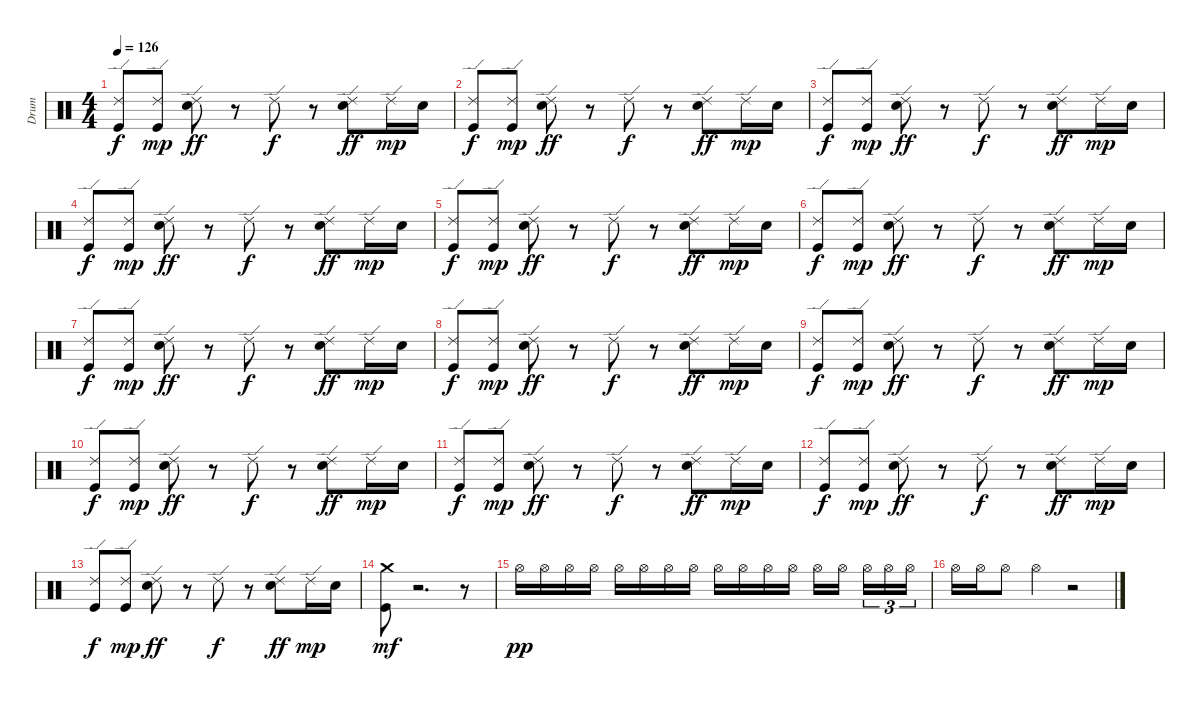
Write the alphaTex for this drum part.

\track ("Drum" "Drum") {instrument percussion}
\staff {score}
\articulation defaults
\ts (4 4)
\tempo 126
\clef neutral
\ks c
("Kick (hit)" "Ride (edge) 2").8{dy f} ("Kick (hit)" "Ride (edge) 2").8{dy mp} ("Snare (hit) 2" "Ride (edge) 2").8{dy ff} r.8 "Ride (edge) 2".8{dy f} r.8 ("Snare (hit) 2" "Ride (edge) 2").8{dy ff} "Ride (edge) 2".16{dy mp} "Snare (hit) 2".16 |
("Kick (hit)" "Ride (edge) 2").8{dy f} ("Kick (hit)" "Ride (edge) 2").8{dy mp} ("Snare (hit) 2" "Ride (edge) 2").8{dy ff} r.8 "Ride (edge) 2".8{dy f} r.8 ("Snare (hit) 2" "Ride (edge) 2").8{dy ff} "Ride (edge) 2".16{dy mp} "Snare (hit) 2".16 |
("Kick (hit)" "Ride (edge) 2").8{dy f} ("Kick (hit)" "Ride (edge) 2").8{dy mp} ("Snare (hit) 2" "Ride (edge) 2").8{dy ff} r.8 "Ride (edge) 2".8{dy f} r.8 ("Snare (hit) 2" "Ride (edge) 2").8{dy ff} "Ride (edge) 2".16{dy mp} "Snare (hit) 2".16 |
("Kick (hit)" "Ride (edge) 2").8{dy f} ("Kick (hit)" "Ride (edge) 2").8{dy mp} ("Snare (hit) 2" "Ride (edge) 2").8{dy ff} r.8 "Ride (edge) 2".8{dy f} r.8 ("Snare (hit) 2" "Ride (edge) 2").8{dy ff} "Ride (edge) 2".16{dy mp} "Snare (hit) 2".16 |
("Kick (hit)" "Ride (edge) 2").8{dy f} ("Kick (hit)" "Ride (edge) 2").8{dy mp} ("Snare (hit) 2" "Ride (edge) 2").8{dy ff} r.8 "Ride (edge) 2".8{dy f} r.8 ("Snare (hit) 2" "Ride (edge) 2").8{dy ff} "Ride (edge) 2".16{dy mp} "Snare (hit) 2".16 |
("Kick (hit)" "Ride (edge) 2").8{dy f} ("Kick (hit)" "Ride (edge) 2").8{dy mp} ("Snare (hit) 2" "Ride (edge) 2").8{dy ff} r.8 "Ride (edge) 2".8{dy f} r.8 ("Snare (hit) 2" "Ride (edge) 2").8{dy ff} "Ride (edge) 2".16{dy mp} "Snare (hit) 2".16 |
("Kick (hit)" "Ride (edge) 2").8{dy f} ("Kick (hit)" "Ride (edge) 2").8{dy mp} ("Snare (hit) 2" "Ride (edge) 2").8{dy ff} r.8 "Ride (edge) 2".8{dy f} r.8 ("Snare (hit) 2" "Ride (edge) 2").8{dy ff} "Ride (edge) 2".16{dy mp} "Snare (hit) 2".16 |
("Kick (hit)" "Ride (edge) 2").8{dy f} ("Kick (hit)" "Ride (edge) 2").8{dy mp} ("Snare (hit) 2" "Ride (edge) 2").8{dy ff} r.8 "Ride (edge) 2".8{dy f} r.8 ("Snare (hit) 2" "Ride (edge) 2").8{dy ff} "Ride (edge) 2".16{dy mp} "Snare (hit) 2".16 |
("Kick (hit)" "Ride (edge) 2").8{dy f} ("Kick (hit)" "Ride (edge) 2").8{dy mp} ("Snare (hit) 2" "Ride (edge) 2").8{dy ff} r.8 "Ride (edge) 2".8{dy f} r.8 ("Snare (hit) 2" "Ride (edge) 2").8{dy ff} "Ride (edge) 2".16{dy mp} "Snare (hit) 2".16 |
("Kick (hit)" "Ride (edge) 2").8{dy f} ("Kick (hit)" "Ride (edge) 2").8{dy mp} ("Snare (hit) 2" "Ride (edge) 2").8{dy ff} r.8 "Ride (edge) 2".8{dy f} r.8 ("Snare (hit) 2" "Ride (edge) 2").8{dy ff} "Ride (edge) 2".16{dy mp} "Snare (hit) 2".16 |
("Kick (hit)" "Ride (edge) 2").8{dy f} ("Kick (hit)" "Ride (edge) 2").8{dy mp} ("Snare (hit) 2" "Ride (edge) 2").8{dy ff} r.8 "Ride (edge) 2".8{dy f} r.8 ("Snare (hit) 2" "Ride (edge) 2").8{dy ff} "Ride (edge) 2".16{dy mp} "Snare (hit) 2".16 |
("Kick (hit)" "Ride (edge) 2").8{dy f} ("Kick (hit)" "Ride (edge) 2").8{dy mp} ("Snare (hit) 2" "Ride (edge) 2").8{dy ff} r.8 "Ride (edge) 2".8{dy f} r.8 ("Snare (hit) 2" "Ride (edge) 2").8{dy ff} "Ride (edge) 2".16{dy mp} "Snare (hit) 2".16 |
("Kick (hit)" "Ride (edge) 2").8{dy f} ("Kick (hit)" "Ride (edge) 2").8{dy mp} ("Snare (hit) 2" "Ride (edge) 2").8{dy ff} r.8 "Ride (edge) 2".8{dy f} r.8 ("Snare (hit) 2" "Ride (edge) 2").8{dy ff} "Ride (edge) 2".16{dy mp} "Snare (hit) 2".16 |
("Kick (hit)" "Crash medium (hit)").8{dy mf} r.2{d} r.8 |
"Hi-Hat (open)".16{dy pp} "Hi-Hat (open)".16 "Hi-Hat (open)".16 "Hi-Hat (open)".16 "Hi-Hat (open)".16 "Hi-Hat (open)".16 "Hi-Hat (open)".16 "Hi-Hat (open)".16 "Hi-Hat (open)".16 "Hi-Hat (open)".16 "Hi-Hat (open)".16 "Hi-Hat (open)".16 "Hi-Hat (open)".16 "Hi-Hat (open)".16 "Hi-Hat (open)".16{tu (3 2)} "Hi-Hat (open)".16{tu (3 2)} "Hi-Hat (open)".16{tu (3 2)} |
"Hi-Hat (open)".16 "Hi-Hat (open)".16 "Hi-Hat (open)".8 "Hi-Hat (open)".4 r.2
